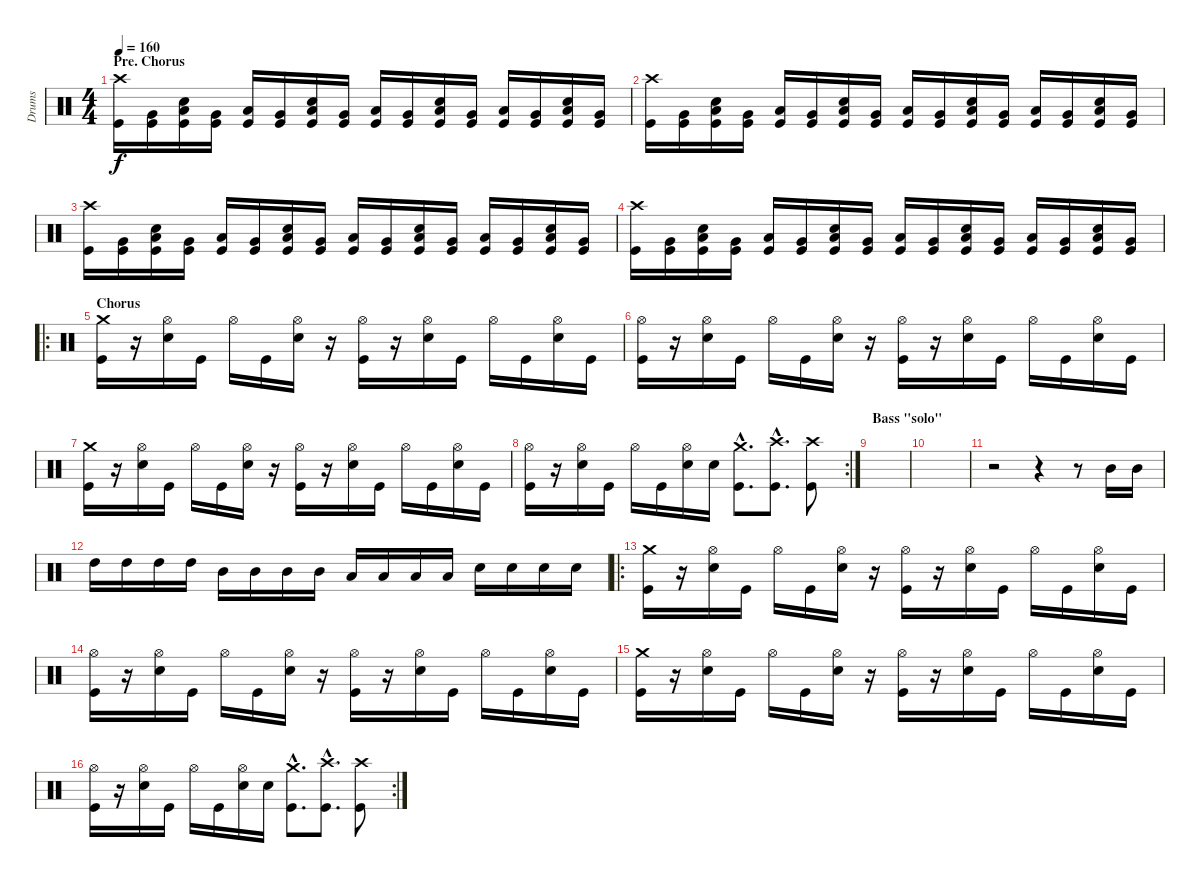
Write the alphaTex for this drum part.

\track ("Drums" "Drums") {instrument percussion}
\staff {score}
\articulation defaults
\ts (4 4)
\section ("" "Pre. Chorus")
\tempo 160
\clef neutral
\ks c
("Crash high (hit)" "Kick (hit)").16{dy f} ("Very Low Tom (hit)" "Kick (hit)").16 ("Low Tom (hit)" "Electric Snare (hit)" "Kick (hit)").16 ("Very Low Tom (hit)" "Kick (hit)").16 ("Low Tom (hit)" "Kick (hit)").16 ("Very Low Tom (hit)" "Kick (hit)").16 ("Low Tom (hit)" "Electric Snare (hit)" "Kick (hit)").16 ("Very Low Tom (hit)" "Kick (hit)").16 ("Low Tom (hit)" "Kick (hit)").16 ("Very Low Tom (hit)" "Kick (hit)").16 ("Low Tom (hit)" "Electric Snare (hit)" "Kick (hit)").16 ("Very Low Tom (hit)" "Kick (hit)").16 ("Low Tom (hit)" "Kick (hit)").16 ("Very Low Tom (hit)" "Kick (hit)").16 ("Low Tom (hit)" "Electric Snare (hit)" "Kick (hit)").16 ("Very Low Tom (hit)" "Kick (hit)").16 |
("Crash high (hit)" "Kick (hit)").16 ("Very Low Tom (hit)" "Kick (hit)").16 ("Low Tom (hit)" "Electric Snare (hit)" "Kick (hit)").16 ("Very Low Tom (hit)" "Kick (hit)").16 ("Low Tom (hit)" "Kick (hit)").16 ("Very Low Tom (hit)" "Kick (hit)").16 ("Low Tom (hit)" "Electric Snare (hit)" "Kick (hit)").16 ("Very Low Tom (hit)" "Kick (hit)").16 ("Low Tom (hit)" "Kick (hit)").16 ("Very Low Tom (hit)" "Kick (hit)").16 ("Low Tom (hit)" "Electric Snare (hit)" "Kick (hit)").16 ("Very Low Tom (hit)" "Kick (hit)").16 ("Low Tom (hit)" "Kick (hit)").16 ("Very Low Tom (hit)" "Kick (hit)").16 ("Low Tom (hit)" "Electric Snare (hit)" "Kick (hit)").16 ("Very Low Tom (hit)" "Kick (hit)").16 |
("Crash high (hit)" "Kick (hit)").16 ("Very Low Tom (hit)" "Kick (hit)").16 ("Low Tom (hit)" "Electric Snare (hit)" "Kick (hit)").16 ("Very Low Tom (hit)" "Kick (hit)").16 ("Low Tom (hit)" "Kick (hit)").16 ("Very Low Tom (hit)" "Kick (hit)").16 ("Low Tom (hit)" "Electric Snare (hit)" "Kick (hit)").16 ("Very Low Tom (hit)" "Kick (hit)").16 ("Low Tom (hit)" "Kick (hit)").16 ("Very Low Tom (hit)" "Kick (hit)").16 ("Low Tom (hit)" "Electric Snare (hit)" "Kick (hit)").16 ("Very Low Tom (hit)" "Kick (hit)").16 ("Low Tom (hit)" "Kick (hit)").16 ("Very Low Tom (hit)" "Kick (hit)").16 ("Low Tom (hit)" "Electric Snare (hit)" "Kick (hit)").16 ("Very Low Tom (hit)" "Kick (hit)").16 |
("Crash high (hit)" "Kick (hit)").16 ("Very Low Tom (hit)" "Kick (hit)").16 ("Low Tom (hit)" "Electric Snare (hit)" "Kick (hit)").16 ("Very Low Tom (hit)" "Kick (hit)").16 ("Low Tom (hit)" "Kick (hit)").16 ("Very Low Tom (hit)" "Kick (hit)").16 ("Low Tom (hit)" "Electric Snare (hit)" "Kick (hit)").16 ("Very Low Tom (hit)" "Kick (hit)").16 ("Low Tom (hit)" "Kick (hit)").16 ("Very Low Tom (hit)" "Kick (hit)").16 ("Low Tom (hit)" "Electric Snare (hit)" "Kick (hit)").16 ("Very Low Tom (hit)" "Kick (hit)").16 ("Low Tom (hit)" "Kick (hit)").16 ("Very Low Tom (hit)" "Kick (hit)").16 ("Low Tom (hit)" "Electric Snare (hit)" "Kick (hit)").16 ("Very Low Tom (hit)" "Kick (hit)").16 |
\ro
\section ("" "Chorus")
("Crash medium (hit)" "Kick (hit)").16 r.16 ("Hi-Hat (open)" "Electric Snare (hit)").16 "Kick (hit)".16 "Hi-Hat (open)".16 "Kick (hit)".16 ("Hi-Hat (open)" "Electric Snare (hit)").16 r.16 ("Hi-Hat (open)" "Kick (hit)").16 r.16 ("Hi-Hat (open)" "Electric Snare (hit)").16 "Kick (hit)".16 "Hi-Hat (open)".16 "Kick (hit)".16 ("Hi-Hat (open)" "Electric Snare (hit)").16 "Kick (hit)".16 |
("Hi-Hat (open)" "Kick (hit)").16 r.16 ("Hi-Hat (open)" "Electric Snare (hit)").16 "Kick (hit)".16 "Hi-Hat (open)".16 "Kick (hit)".16 ("Hi-Hat (open)" "Electric Snare (hit)").16 r.16 ("Hi-Hat (open)" "Kick (hit)").16 r.16 ("Hi-Hat (open)" "Electric Snare (hit)").16 "Kick (hit)".16 "Hi-Hat (open)".16 "Kick (hit)".16 ("Hi-Hat (open)" "Electric Snare (hit)").16 "Kick (hit)".16 |
("Crash medium (hit)" "Kick (hit)").16 r.16 ("Hi-Hat (open)" "Electric Snare (hit)").16 "Kick (hit)".16 "Hi-Hat (open)".16 "Kick (hit)".16 ("Hi-Hat (open)" "Electric Snare (hit)").16 r.16 ("Hi-Hat (open)" "Kick (hit)").16 r.16 ("Hi-Hat (open)" "Electric Snare (hit)").16 "Kick (hit)".16 "Hi-Hat (open)".16 "Kick (hit)".16 ("Hi-Hat (open)" "Electric Snare (hit)").16 "Kick (hit)".16 |
\rc 2
("Hi-Hat (open)" "Kick (hit)").16 r.16 ("Hi-Hat (open)" "Electric Snare (hit)").16 "Kick (hit)".16 "Hi-Hat (open)".16 "Kick (hit)".16 ("Hi-Hat (open)" "Electric Snare (hit)").16 "Electric Snare (hit)".16 ("Crash medium (hit)"{hac} "Kick (hit)"{hac}).8{d} ("Crash high (hit)"{hac} "Kick (hit)"{hac}).8{d} ("Crash high (hit)" "Kick (hit)").8 |
\section ("" "Bass \"solo\"")
|
|
r.2 r.4 r.8 "Mid Tom (hit)".16 "Mid Tom (hit)".16 |
"High Tom (hit)".16 "High Tom (hit)".16 "High Tom (hit)".16 "High Tom (hit)".16 "Mid Tom (hit)".16 "Mid Tom (hit)".16 "Mid Tom (hit)".16 "Mid Tom (hit)".16 "Low Tom (hit)".16 "Low Tom (hit)".16 "Low Tom (hit)".16 "Low Tom (hit)".16 "Electric Snare (hit)".16 "Electric Snare (hit)".16 "Electric Snare (hit)".16 "Electric Snare (hit)".16 |
\ro
("Crash medium (hit)" "Kick (hit)").16 r.16 ("Hi-Hat (open)" "Electric Snare (hit)").16 "Kick (hit)".16 "Hi-Hat (open)".16 "Kick (hit)".16 ("Hi-Hat (open)" "Electric Snare (hit)").16 r.16 ("Hi-Hat (open)" "Kick (hit)").16 r.16 ("Hi-Hat (open)" "Electric Snare (hit)").16 "Kick (hit)".16 "Hi-Hat (open)".16 "Kick (hit)".16 ("Hi-Hat (open)" "Electric Snare (hit)").16 "Kick (hit)".16 |
("Hi-Hat (open)" "Kick (hit)").16 r.16 ("Hi-Hat (open)" "Electric Snare (hit)").16 "Kick (hit)".16 "Hi-Hat (open)".16 "Kick (hit)".16 ("Hi-Hat (open)" "Electric Snare (hit)").16 r.16 ("Hi-Hat (open)" "Kick (hit)").16 r.16 ("Hi-Hat (open)" "Electric Snare (hit)").16 "Kick (hit)".16 "Hi-Hat (open)".16 "Kick (hit)".16 ("Hi-Hat (open)" "Electric Snare (hit)").16 "Kick (hit)".16 |
("Crash medium (hit)" "Kick (hit)").16 r.16 ("Hi-Hat (open)" "Electric Snare (hit)").16 "Kick (hit)".16 "Hi-Hat (open)".16 "Kick (hit)".16 ("Hi-Hat (open)" "Electric Snare (hit)").16 r.16 ("Hi-Hat (open)" "Kick (hit)").16 r.16 ("Hi-Hat (open)" "Electric Snare (hit)").16 "Kick (hit)".16 "Hi-Hat (open)".16 "Kick (hit)".16 ("Hi-Hat (open)" "Electric Snare (hit)").16 "Kick (hit)".16 |
\rc 2
("Hi-Hat (open)" "Kick (hit)").16 r.16 ("Hi-Hat (open)" "Electric Snare (hit)").16 "Kick (hit)".16 "Hi-Hat (open)".16 "Kick (hit)".16 ("Hi-Hat (open)" "Electric Snare (hit)").16 "Electric Snare (hit)".16 ("Crash medium (hit)"{hac} "Kick (hit)"{hac}).8{d} ("Crash high (hit)"{hac} "Kick (hit)"{hac}).8{d} ("Crash high (hit)" "Kick (hit)").8
